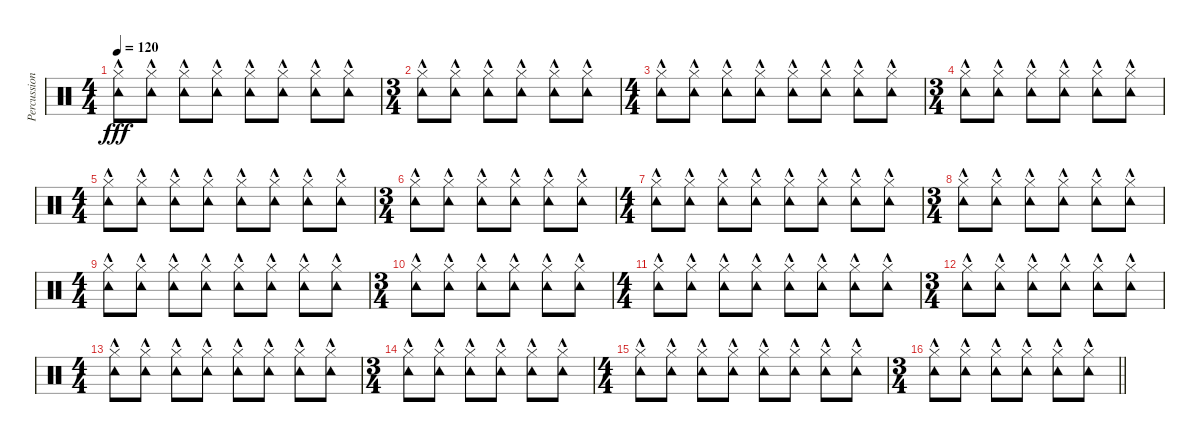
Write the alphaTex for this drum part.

\track ("Percussion" "Percussion") {instrument percussion}
\staff {score}
\articulation defaults
\ts (4 4)
\tempo 120
\clef neutral
\ks c
("Tambourine (hit)"{hac} "Hi-Hat (closed)").8{dy fff} ("Tambourine (hit)"{hac} "Hi-Hat (closed)").8 ("Tambourine (hit)"{hac} "Hi-Hat (closed)").8 ("Tambourine (hit)"{hac} "Hi-Hat (closed)").8 ("Tambourine (hit)"{hac} "Hi-Hat (closed)").8 ("Tambourine (hit)"{hac} "Hi-Hat (closed)").8 ("Tambourine (hit)"{hac} "Hi-Hat (closed)").8 ("Tambourine (hit)"{hac} "Hi-Hat (closed)").8 |
\ts (3 4)
("Tambourine (hit)"{hac} "Hi-Hat (closed)").8 ("Tambourine (hit)"{hac} "Hi-Hat (closed)").8 ("Tambourine (hit)"{hac} "Hi-Hat (closed)").8 ("Tambourine (hit)"{hac} "Hi-Hat (closed)").8 ("Tambourine (hit)"{hac} "Hi-Hat (closed)").8 ("Tambourine (hit)"{hac} "Hi-Hat (closed)").8 |
\ts (4 4)
("Tambourine (hit)"{hac} "Hi-Hat (closed)").8 ("Tambourine (hit)"{hac} "Hi-Hat (closed)").8 ("Tambourine (hit)"{hac} "Hi-Hat (closed)").8 ("Tambourine (hit)"{hac} "Hi-Hat (closed)").8 ("Tambourine (hit)"{hac} "Hi-Hat (closed)").8 ("Tambourine (hit)"{hac} "Hi-Hat (closed)").8 ("Tambourine (hit)"{hac} "Hi-Hat (closed)").8 ("Tambourine (hit)"{hac} "Hi-Hat (closed)").8 |
\ts (3 4)
("Tambourine (hit)"{hac} "Hi-Hat (closed)").8 ("Tambourine (hit)"{hac} "Hi-Hat (closed)").8 ("Tambourine (hit)"{hac} "Hi-Hat (closed)").8 ("Tambourine (hit)"{hac} "Hi-Hat (closed)").8 ("Tambourine (hit)"{hac} "Hi-Hat (closed)").8 ("Tambourine (hit)"{hac} "Hi-Hat (closed)").8 |
\ts (4 4)
("Tambourine (hit)"{hac} "Hi-Hat (closed)").8 ("Tambourine (hit)"{hac} "Hi-Hat (closed)").8 ("Tambourine (hit)"{hac} "Hi-Hat (closed)").8 ("Tambourine (hit)"{hac} "Hi-Hat (closed)").8 ("Tambourine (hit)"{hac} "Hi-Hat (closed)").8 ("Tambourine (hit)"{hac} "Hi-Hat (closed)").8 ("Tambourine (hit)"{hac} "Hi-Hat (closed)").8 ("Tambourine (hit)"{hac} "Hi-Hat (closed)").8 |
\ts (3 4)
("Tambourine (hit)"{hac} "Hi-Hat (closed)").8 ("Tambourine (hit)"{hac} "Hi-Hat (closed)").8 ("Tambourine (hit)"{hac} "Hi-Hat (closed)").8 ("Tambourine (hit)"{hac} "Hi-Hat (closed)").8 ("Tambourine (hit)"{hac} "Hi-Hat (closed)").8 ("Tambourine (hit)"{hac} "Hi-Hat (closed)").8 |
\ts (4 4)
("Tambourine (hit)"{hac} "Hi-Hat (closed)").8 ("Tambourine (hit)"{hac} "Hi-Hat (closed)").8 ("Tambourine (hit)"{hac} "Hi-Hat (closed)").8 ("Tambourine (hit)"{hac} "Hi-Hat (closed)").8 ("Tambourine (hit)"{hac} "Hi-Hat (closed)").8 ("Tambourine (hit)"{hac} "Hi-Hat (closed)").8 ("Tambourine (hit)"{hac} "Hi-Hat (closed)").8 ("Tambourine (hit)"{hac} "Hi-Hat (closed)").8 |
\ts (3 4)
("Tambourine (hit)"{hac} "Hi-Hat (closed)").8 ("Tambourine (hit)"{hac} "Hi-Hat (closed)").8 ("Tambourine (hit)"{hac} "Hi-Hat (closed)").8 ("Tambourine (hit)"{hac} "Hi-Hat (closed)").8 ("Tambourine (hit)"{hac} "Hi-Hat (closed)").8 ("Tambourine (hit)"{hac} "Hi-Hat (closed)").8 |
\ts (4 4)
("Tambourine (hit)"{hac} "Hi-Hat (closed)").8 ("Tambourine (hit)"{hac} "Hi-Hat (closed)").8 ("Tambourine (hit)"{hac} "Hi-Hat (closed)").8 ("Tambourine (hit)"{hac} "Hi-Hat (closed)").8 ("Tambourine (hit)"{hac} "Hi-Hat (closed)").8 ("Tambourine (hit)"{hac} "Hi-Hat (closed)").8 ("Tambourine (hit)"{hac} "Hi-Hat (closed)").8 ("Tambourine (hit)"{hac} "Hi-Hat (closed)").8 |
\ts (3 4)
("Tambourine (hit)"{hac} "Hi-Hat (closed)").8 ("Tambourine (hit)"{hac} "Hi-Hat (closed)").8 ("Tambourine (hit)"{hac} "Hi-Hat (closed)").8 ("Tambourine (hit)"{hac} "Hi-Hat (closed)").8 ("Tambourine (hit)"{hac} "Hi-Hat (closed)").8 ("Tambourine (hit)"{hac} "Hi-Hat (closed)").8 |
\ts (4 4)
("Tambourine (hit)"{hac} "Hi-Hat (closed)").8 ("Tambourine (hit)"{hac} "Hi-Hat (closed)").8 ("Tambourine (hit)"{hac} "Hi-Hat (closed)").8 ("Tambourine (hit)"{hac} "Hi-Hat (closed)").8 ("Tambourine (hit)"{hac} "Hi-Hat (closed)").8 ("Tambourine (hit)"{hac} "Hi-Hat (closed)").8 ("Tambourine (hit)"{hac} "Hi-Hat (closed)").8 ("Tambourine (hit)"{hac} "Hi-Hat (closed)").8 |
\ts (3 4)
("Tambourine (hit)"{hac} "Hi-Hat (closed)").8 ("Tambourine (hit)"{hac} "Hi-Hat (closed)").8 ("Tambourine (hit)"{hac} "Hi-Hat (closed)").8 ("Tambourine (hit)"{hac} "Hi-Hat (closed)").8 ("Tambourine (hit)"{hac} "Hi-Hat (closed)").8 ("Tambourine (hit)"{hac} "Hi-Hat (closed)").8 |
\ts (4 4)
("Tambourine (hit)"{hac} "Hi-Hat (closed)").8 ("Tambourine (hit)"{hac} "Hi-Hat (closed)").8 ("Tambourine (hit)"{hac} "Hi-Hat (closed)").8 ("Tambourine (hit)"{hac} "Hi-Hat (closed)").8 ("Tambourine (hit)"{hac} "Hi-Hat (closed)").8 ("Tambourine (hit)"{hac} "Hi-Hat (closed)").8 ("Tambourine (hit)"{hac} "Hi-Hat (closed)").8 ("Tambourine (hit)"{hac} "Hi-Hat (closed)").8 |
\ts (3 4)
("Tambourine (hit)"{hac} "Hi-Hat (closed)").8 ("Tambourine (hit)"{hac} "Hi-Hat (closed)").8 ("Tambourine (hit)"{hac} "Hi-Hat (closed)").8 ("Tambourine (hit)"{hac} "Hi-Hat (closed)").8 ("Tambourine (hit)"{hac} "Hi-Hat (closed)").8 ("Tambourine (hit)"{hac} "Hi-Hat (closed)").8 |
\ts (4 4)
("Tambourine (hit)"{hac} "Hi-Hat (closed)").8 ("Tambourine (hit)"{hac} "Hi-Hat (closed)").8 ("Tambourine (hit)"{hac} "Hi-Hat (closed)").8 ("Tambourine (hit)"{hac} "Hi-Hat (closed)").8 ("Tambourine (hit)"{hac} "Hi-Hat (closed)").8 ("Tambourine (hit)"{hac} "Hi-Hat (closed)").8 ("Tambourine (hit)"{hac} "Hi-Hat (closed)").8 ("Tambourine (hit)"{hac} "Hi-Hat (closed)").8 |
\ts (3 4)
\barLineRight lightlight
("Tambourine (hit)"{hac} "Hi-Hat (closed)").8 ("Tambourine (hit)"{hac} "Hi-Hat (closed)").8 ("Tambourine (hit)"{hac} "Hi-Hat (closed)").8 ("Tambourine (hit)"{hac} "Hi-Hat (closed)").8 ("Tambourine (hit)"{hac} "Hi-Hat (closed)").8 ("Tambourine (hit)"{hac} "Hi-Hat (closed)").8
